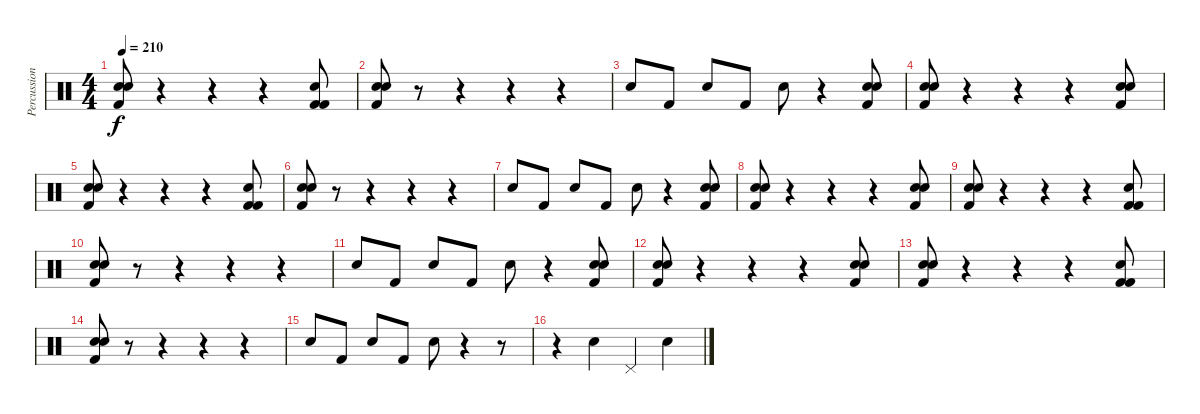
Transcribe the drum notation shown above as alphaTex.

\track ("Percussion" "Percussion") {instrument percussion}
\staff {score}
\articulation defaults
\ts (4 4)
\tempo 210
\clef neutral
\ks c
("Electric Snare (hit)" "Electric Snare (hit)" "Kick (hit) 2").8{dy f} r.4 r.4 r.4 ("Electric Snare (hit)" "Kick (hit) 2" "Kick (hit) 2").8 |
("Electric Snare (hit)" "Electric Snare (hit)" "Kick (hit) 2").8 r.8 r.4 r.4 r.4 |
"Electric Snare (hit)".8 "Kick (hit) 2".8 "Electric Snare (hit)".8 "Kick (hit) 2".8 "Electric Snare (hit)".8 r.4 ("Electric Snare (hit)" "Electric Snare (hit)" "Kick (hit) 2").8 |
("Electric Snare (hit)" "Electric Snare (hit)" "Kick (hit) 2").8 r.4 r.4 r.4 ("Electric Snare (hit)" "Electric Snare (hit)" "Kick (hit) 2").8 |
("Electric Snare (hit)" "Electric Snare (hit)" "Kick (hit) 2").8 r.4 r.4 r.4 ("Electric Snare (hit)" "Kick (hit) 2" "Kick (hit) 2").8 |
("Electric Snare (hit)" "Electric Snare (hit)" "Kick (hit) 2").8 r.8 r.4 r.4 r.4 |
"Electric Snare (hit)".8 "Kick (hit) 2".8 "Electric Snare (hit)".8 "Kick (hit) 2".8 "Electric Snare (hit)".8 r.4 ("Electric Snare (hit)" "Electric Snare (hit)" "Kick (hit) 2").8 |
("Electric Snare (hit)" "Electric Snare (hit)" "Kick (hit) 2").8 r.4 r.4 r.4 ("Electric Snare (hit)" "Electric Snare (hit)" "Kick (hit) 2").8 |
("Electric Snare (hit)" "Electric Snare (hit)" "Kick (hit) 2").8 r.4 r.4 r.4 ("Electric Snare (hit)" "Kick (hit) 2" "Kick (hit) 2").8 |
("Electric Snare (hit)" "Electric Snare (hit)" "Kick (hit) 2").8 r.8 r.4 r.4 r.4 |
"Electric Snare (hit)".8 "Kick (hit) 2".8 "Electric Snare (hit)".8 "Kick (hit) 2".8 "Electric Snare (hit)".8 r.4 ("Electric Snare (hit)" "Electric Snare (hit)" "Kick (hit) 2").8 |
("Electric Snare (hit)" "Electric Snare (hit)" "Kick (hit) 2").8 r.4 r.4 r.4 ("Electric Snare (hit)" "Electric Snare (hit)" "Kick (hit) 2").8 |
("Electric Snare (hit)" "Electric Snare (hit)" "Kick (hit) 2").8 r.4 r.4 r.4 ("Electric Snare (hit)" "Kick (hit) 2" "Kick (hit) 2").8 |
("Electric Snare (hit)" "Electric Snare (hit)" "Kick (hit) 2").8 r.8 r.4 r.4 r.4 |
"Electric Snare (hit)".8 "Kick (hit) 2".8 "Electric Snare (hit)".8 "Kick (hit) 2".8 "Electric Snare (hit)".8 r.4 r.8 |
r.4 "Electric Snare (hit)".4 "Pedal Hi-Hat (hit)".4 "Electric Snare (hit)".4
